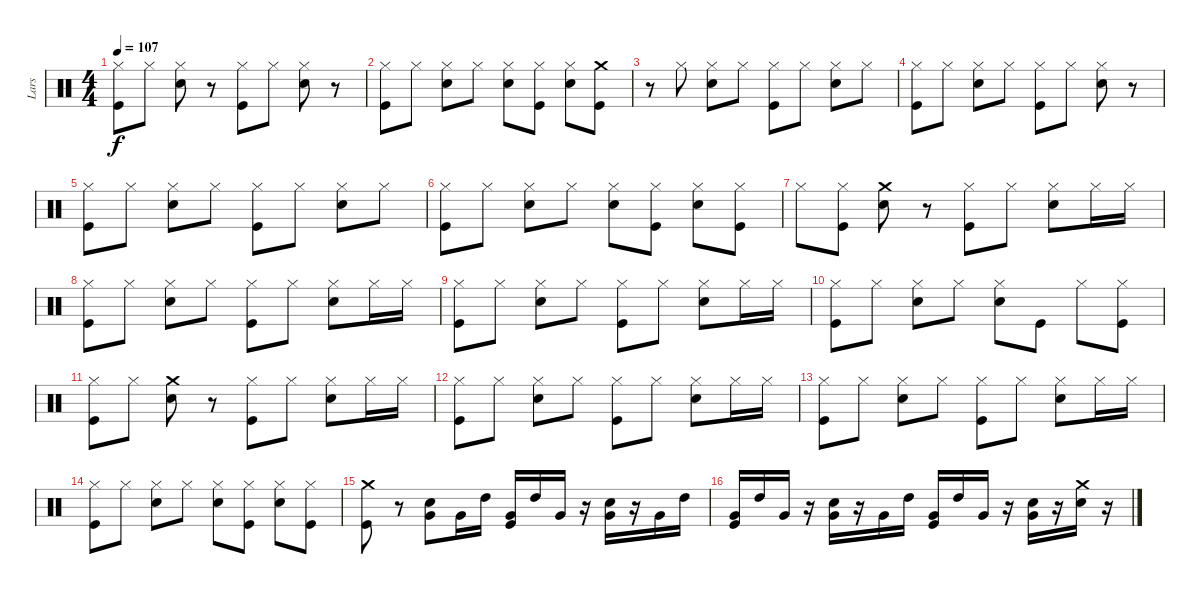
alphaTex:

\track ("Lars" "Lars") {instrument percussion}
\staff {score}
\articulation defaults
\ts (4 4)
\tempo 107
\clef neutral
\ks c
("Kick (hit)" "Hi-Hat (closed)").8{dy f} "Hi-Hat (closed)".8 ("Hi-Hat (closed)" "Snare (hit) 2").8 r.8 ("Kick (hit)" "Hi-Hat (closed)").8 "Hi-Hat (closed)".8 ("Snare (hit) 2" "Hi-Hat (closed)").8 r.8 |
("Kick (hit)" "Hi-Hat (closed)").8 "Hi-Hat (closed)".8 ("Snare (hit) 2" "Hi-Hat (closed)").8 "Hi-Hat (closed)".8 ("Snare (hit) 2" "Hi-Hat (closed)").8 ("Kick (hit)" "Hi-Hat (closed)").8 ("Hi-Hat (closed)" "Snare (hit) 2").8 ("Crash medium (hit)" "Kick (hit)").8 |
r.8 "Hi-Hat (closed)".8 ("Snare (hit) 2" "Hi-Hat (closed)").8 "Hi-Hat (closed)".8 ("Kick (hit)" "Hi-Hat (closed)").8 "Hi-Hat (closed)".8 ("Snare (hit) 2" "Hi-Hat (closed)").8 "Hi-Hat (closed)".8 |
("Hi-Hat (closed)" "Kick (hit)").8 "Hi-Hat (closed)".8 ("Snare (hit) 2" "Hi-Hat (closed)").8 "Hi-Hat (closed)".8 ("Hi-Hat (closed)" "Kick (hit)").8 "Hi-Hat (closed)".8 ("Snare (hit) 2" "Hi-Hat (closed)").8 r.8 |
("Kick (hit)" "Hi-Hat (closed)").8 "Hi-Hat (closed)".8 ("Snare (hit) 2" "Hi-Hat (closed)").8 "Hi-Hat (closed)".8 ("Kick (hit)" "Hi-Hat (closed)").8 "Hi-Hat (closed)".8 ("Snare (hit) 2" "Hi-Hat (closed)").8 "Hi-Hat (closed)".8 |
("Hi-Hat (closed)" "Kick (hit)").8 "Hi-Hat (closed)".8 ("Snare (hit) 2" "Hi-Hat (closed)").8 "Hi-Hat (closed)".8 ("Snare (hit) 2" "Hi-Hat (closed)").8 ("Kick (hit)" "Hi-Hat (closed)").8 ("Snare (hit) 2" "Hi-Hat (closed)").8 ("Kick (hit)" "Hi-Hat (closed)").8 |
"Hi-Hat (closed)".8 ("Kick (hit)" "Hi-Hat (closed)").8 ("Crash medium (hit)" "Snare (hit) 2").8 r.8 ("Kick (hit)" "Hi-Hat (closed)").8 "Hi-Hat (closed)".8 ("Hi-Hat (closed)" "Snare (hit) 2").8 "Hi-Hat (closed)".16 "Hi-Hat (closed)".16 |
("Hi-Hat (closed)" "Kick (hit)").8 "Hi-Hat (closed)".8 ("Snare (hit) 2" "Hi-Hat (closed)").8 "Hi-Hat (closed)".8 ("Kick (hit)" "Hi-Hat (closed)").8 "Hi-Hat (closed)".8 ("Snare (hit) 2" "Hi-Hat (closed)").8 "Hi-Hat (closed)".16 "Hi-Hat (closed)".16 |
("Hi-Hat (closed)" "Kick (hit)").8 "Hi-Hat (closed)".8 ("Snare (hit) 2" "Hi-Hat (closed)").8 "Hi-Hat (closed)".8 ("Kick (hit)" "Hi-Hat (closed)").8 "Hi-Hat (closed)".8 ("Snare (hit) 2" "Hi-Hat (closed)").8 "Hi-Hat (closed)".16 "Hi-Hat (closed)".16 |
("Kick (hit)" "Hi-Hat (closed)").8 "Hi-Hat (closed)".8 ("Snare (hit) 2" "Hi-Hat (closed)").8 "Hi-Hat (closed)".8 ("Snare (hit) 2" "Hi-Hat (closed)").8 "Kick (hit)".8 "Hi-Hat (closed)".8 ("Kick (hit)" "Hi-Hat (closed)").8 |
("Hi-Hat (closed)" "Kick (hit)").8 "Hi-Hat (closed)".8 ("Crash medium (hit)" "Snare (hit) 2").8 r.8 ("Kick (hit)" "Hi-Hat (closed)").8 "Hi-Hat (closed)".8 ("Snare (hit) 2" "Hi-Hat (closed)").8 "Hi-Hat (closed)".16 "Hi-Hat (closed)".16 |
("Hi-Hat (closed)" "Kick (hit)").8 "Hi-Hat (closed)".8 ("Snare (hit) 2" "Hi-Hat (closed)").8 "Hi-Hat (closed)".8 ("Hi-Hat (closed)" "Kick (hit)").8 "Hi-Hat (closed)".8 ("Snare (hit) 2" "Hi-Hat (closed)").8 "Hi-Hat (closed)".16 "Hi-Hat (closed)".16 |
("Hi-Hat (closed)" "Kick (hit)").8 "Hi-Hat (closed)".8 ("Snare (hit) 2" "Hi-Hat (closed)").8 "Hi-Hat (closed)".8 ("Hi-Hat (closed)" "Kick (hit)").8 "Hi-Hat (closed)".8 ("Snare (hit) 2" "Hi-Hat (closed)").8 "Hi-Hat (closed)".16 "Hi-Hat (closed)".16 |
("Hi-Hat (closed)" "Kick (hit)").8 "Hi-Hat (closed)".8 ("Snare (hit) 2" "Hi-Hat (closed)").8 "Hi-Hat (closed)".8 ("Snare (hit) 2" "Hi-Hat (closed)").8 ("Kick (hit)" "Hi-Hat (closed)").8 ("Hi-Hat (closed)" "Snare (hit) 2").8 ("Kick (hit)" "Hi-Hat (closed)").8 |
("Crash medium (hit)" "Kick (hit)").8 r.8 ("Very Low Tom (hit)" "Snare (hit) 2").8 "Very Low Tom (hit)".16 "High Tom (hit)".16 ("Very Low Tom (hit)" "Kick (hit)").16 "High Tom (hit)".16 "Very Low Tom (hit)".16 r.16 ("Very Low Tom (hit)" "Snare (hit) 2").16 r.16 "Very Low Tom (hit)".16 "High Tom (hit)".16 |
("Very Low Tom (hit)" "Kick (hit)").16 "High Tom (hit)".16 "Very Low Tom (hit)".16 r.16 ("Very Low Tom (hit)" "Snare (hit) 2").16 r.16 "Very Low Tom (hit)".16 "High Tom (hit)".16 ("Very Low Tom (hit)" "Kick (hit)").16 "High Tom (hit)".16 "Very Low Tom (hit)".16 r.16 ("Very Low Tom (hit)" "Snare (hit) 2").16 r.16 ("Crash medium (hit)" "Snare (hit) 2").16 r.16
